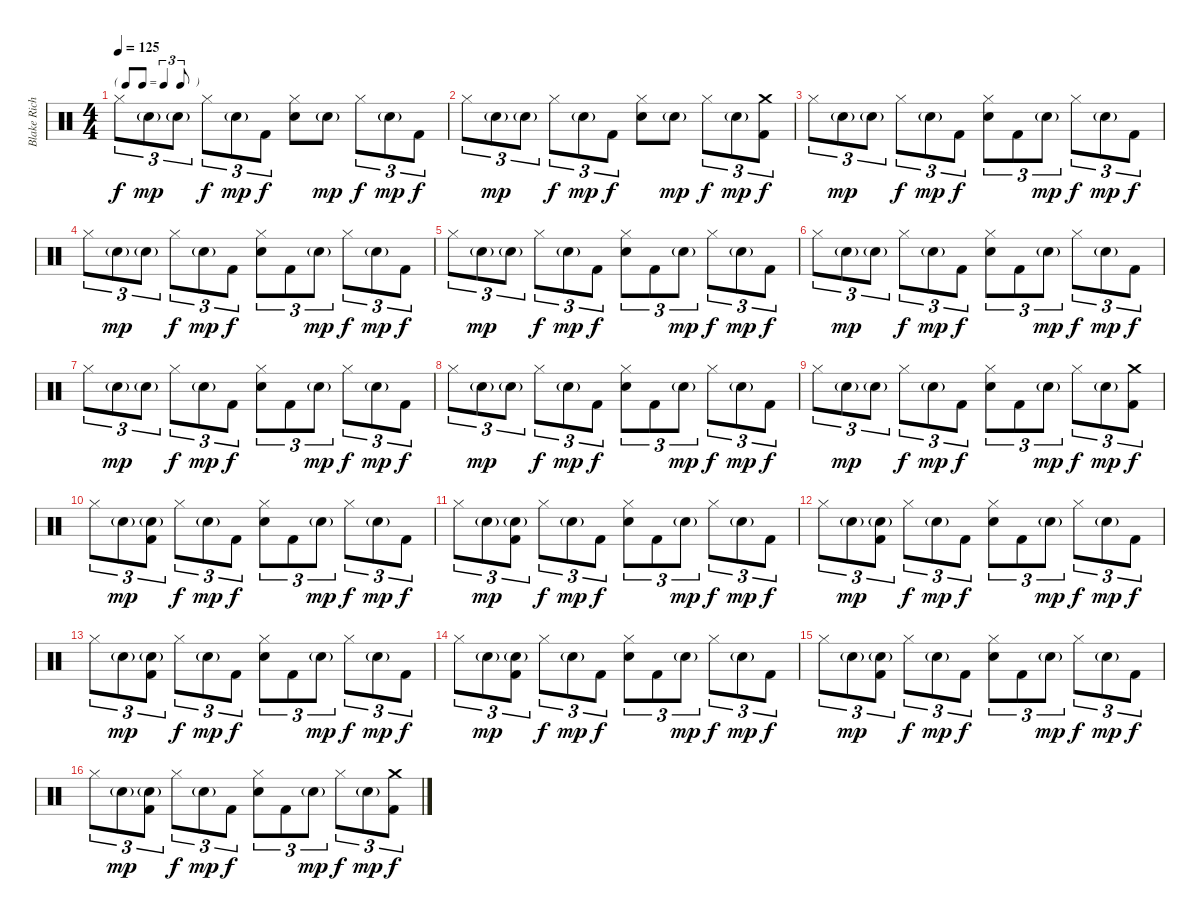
\track ("Blake Richardson - Drums" "Blake Rich") {instrument percussion}
\staff {score}
\articulation defaults
\ts (4 4)
\tf triplet8th
\tempo 125
\clef neutral
\ks c "Hi-Hat (closed)".8{tu (3 2) dy f} "Electric Snare (hit)"{g}.8{tu (3 2) dy mp} "Electric Snare (hit)"{g}.8{tu (3 2)} "Hi-Hat (closed)".8{tu (3 2) dy f} "Electric Snare (hit)"{g}.8{tu (3 2) dy mp} "Kick (hit) 2".8{tu (3 2) dy f}
("Hi-Hat (closed)" "Electric Snare (hit)").8 "Electric Snare (hit)"{g}.8{dy mp} "Hi-Hat (closed)".8{tu (3 2) dy f} "Electric Snare (hit)"{g}.8{tu (3 2) dy mp} "Kick (hit) 2".8{tu (3 2) dy f} |
"Hi-Hat (closed)".8{tu (3 2)} "Electric Snare (hit)"{g}.8{tu (3 2) dy mp} "Electric Snare (hit)"{g}.8{tu (3 2)} "Hi-Hat (closed)".8{tu (3 2) dy f} "Electric Snare (hit)"{g}.8{tu (3 2) dy mp} "Kick (hit) 2".8{tu (3 2) dy f} ("Hi-Hat (closed)" "Electric Snare (hit)").8 "Electric Snare (hit)"{g}.8{dy mp} "Hi-Hat (closed)".8{tu (3 2) dy f} "Electric Snare (hit)"{g}.8{tu (3 2) dy mp} ("Crash medium (hit)" "Kick (hit) 2").8{tu (3 2) dy f} |
"Hi-Hat (closed)".8{tu (3 2)} "Electric Snare (hit)"{g}.8{tu (3 2) dy mp} "Electric Snare (hit)"{g}.8{tu (3 2)} "Hi-Hat (closed)".8{tu (3 2) dy f} "Electric Snare (hit)"{g}.8{tu (3 2) dy mp} "Kick (hit) 2".8{tu (3 2) dy f} ("Hi-Hat (closed)" "Electric Snare (hit)").8{tu (3 2)} "Kick (hit) 2".8{tu (3 2)} "Electric Snare (hit)"{g}.8{tu (3 2) dy mp} "Hi-Hat (closed)".8{tu (3 2) dy f} "Electric Snare (hit)"{g}.8{tu (3 2) dy mp} "Kick (hit) 2".8{tu (3 2) dy f} |
"Hi-Hat (closed)".8{tu (3 2)} "Electric Snare (hit)"{g}.8{tu (3 2) dy mp} "Electric Snare (hit)"{g}.8{tu (3 2)} "Hi-Hat (closed)".8{tu (3 2) dy f} "Electric Snare (hit)"{g}.8{tu (3 2) dy mp} "Kick (hit) 2".8{tu (3 2) dy f} ("Hi-Hat (closed)" "Electric Snare (hit)").8{tu (3 2)} "Kick (hit) 2".8{tu (3 2)} "Electric Snare (hit)"{g}.8{tu (3 2) dy mp} "Hi-Hat (closed)".8{tu (3 2) dy f} "Electric Snare (hit)"{g}.8{tu (3 2) dy mp} "Kick (hit) 2".8{tu (3 2) dy f} |
"Hi-Hat (closed)".8{tu (3 2)} "Electric Snare (hit)"{g}.8{tu (3 2) dy mp} "Electric Snare (hit)"{g}.8{tu (3 2)} "Hi-Hat (closed)".8{tu (3 2) dy f} "Electric Snare (hit)"{g}.8{tu (3 2) dy mp} "Kick (hit) 2".8{tu (3 2) dy f} ("Hi-Hat (closed)" "Electric Snare (hit)").8{tu (3 2)} "Kick (hit) 2".8{tu (3 2)} "Electric Snare (hit)"{g}.8{tu (3 2) dy mp} "Hi-Hat (closed)".8{tu (3 2) dy f} "Electric Snare (hit)"{g}.8{tu (3 2) dy mp} "Kick (hit) 2".8{tu (3 2) dy f} |
"Hi-Hat (closed)".8{tu (3 2)} "Electric Snare (hit)"{g}.8{tu (3 2) dy mp} "Electric Snare (hit)"{g}.8{tu (3 2)} "Hi-Hat (closed)".8{tu (3 2) dy f} "Electric Snare (hit)"{g}.8{tu (3 2) dy mp} "Kick (hit) 2".8{tu (3 2) dy f} ("Hi-Hat (closed)" "Electric Snare (hit)").8{tu (3 2)} "Kick (hit) 2".8{tu (3 2)} "Electric Snare (hit)"{g}.8{tu (3 2) dy mp} "Hi-Hat (closed)".8{tu (3 2) dy f} "Electric Snare (hit)"{g}.8{tu (3 2) dy mp} "Kick (hit) 2".8{tu (3 2) dy f} |
"Hi-Hat (closed)".8{tu (3 2)} "Electric Snare (hit)"{g}.8{tu (3 2) dy mp} "Electric Snare (hit)"{g}.8{tu (3 2)} "Hi-Hat (closed)".8{tu (3 2) dy f} "Electric Snare (hit)"{g}.8{tu (3 2) dy mp} "Kick (hit) 2".8{tu (3 2) dy f} ("Hi-Hat (closed)" "Electric Snare (hit)").8{tu (3 2)} "Kick (hit) 2".8{tu (3 2)} "Electric Snare (hit)"{g}.8{tu (3 2) dy mp} "Hi-Hat (closed)".8{tu (3 2) dy f} "Electric Snare (hit)"{g}.8{tu (3 2) dy mp} "Kick (hit) 2".8{tu (3 2) dy f} |
"Hi-Hat (closed)".8{tu (3 2)} "Electric Snare (hit)"{g}.8{tu (3 2) dy mp} "Electric Snare (hit)"{g}.8{tu (3 2)} "Hi-Hat (closed)".8{tu (3 2) dy f} "Electric Snare (hit)"{g}.8{tu (3 2) dy mp} "Kick (hit) 2".8{tu (3 2) dy f} ("Hi-Hat (closed)" "Electric Snare (hit)").8{tu (3 2)} "Kick (hit) 2".8{tu (3 2)} "Electric Snare (hit)"{g}.8{tu (3 2) dy mp} "Hi-Hat (closed)".8{tu (3 2) dy f} "Electric Snare (hit)"{g}.8{tu (3 2) dy mp} "Kick (hit) 2".8{tu (3 2) dy f} |
"Hi-Hat (closed)".8{tu (3 2)} "Electric Snare (hit)"{g}.8{tu (3 2) dy mp} "Electric Snare (hit)"{g}.8{tu (3 2)} "Hi-Hat (closed)".8{tu (3 2) dy f} "Electric Snare (hit)"{g}.8{tu (3 2) dy mp} "Kick (hit) 2".8{tu (3 2) dy f} ("Hi-Hat (closed)" "Electric Snare (hit)").8{tu (3 2)} "Kick (hit) 2".8{tu (3 2)} "Electric Snare (hit)"{g}.8{tu (3 2) dy mp} "Hi-Hat (closed)".8{tu (3 2) dy f} "Electric Snare (hit)"{g}.8{tu (3 2) dy mp} ("Crash medium (hit)" "Kick (hit) 2").8{tu (3 2) dy f} |
"Hi-Hat (closed)".8{tu (3 2)} "Electric Snare (hit)"{g}.8{tu (3 2) dy mp} ("Electric Snare (hit)"{g} "Kick (hit) 2").8{tu (3 2)} "Hi-Hat (closed)".8{tu (3 2) dy f} "Electric Snare (hit)"{g}.8{tu (3 2) dy mp} "Kick (hit) 2".8{tu (3 2) dy f} ("Hi-Hat (closed)" "Electric Snare (hit)").8{tu (3 2)} "Kick (hit) 2".8{tu (3 2)} "Electric Snare (hit)"{g}.8{tu (3 2) dy mp} "Hi-Hat (closed)".8{tu (3 2) dy f} "Electric Snare (hit)"{g}.8{tu (3 2) dy mp} "Kick (hit) 2".8{tu (3 2) dy f} |
"Hi-Hat (closed)".8{tu (3 2)} "Electric Snare (hit)"{g}.8{tu (3 2) dy mp} ("Electric Snare (hit)"{g} "Kick (hit) 2").8{tu (3 2)} "Hi-Hat (closed)".8{tu (3 2) dy f} "Electric Snare (hit)"{g}.8{tu (3 2) dy mp} "Kick (hit) 2".8{tu (3 2) dy f} ("Hi-Hat (closed)" "Electric Snare (hit)").8{tu (3 2)} "Kick (hit) 2".8{tu (3 2)} "Electric Snare (hit)"{g}.8{tu (3 2) dy mp} "Hi-Hat (closed)".8{tu (3 2) dy f} "Electric Snare (hit)"{g}.8{tu (3 2) dy mp} "Kick (hit) 2".8{tu (3 2) dy f} |
"Hi-Hat (closed)".8{tu (3 2)} "Electric Snare (hit)"{g}.8{tu (3 2) dy mp} ("Electric Snare (hit)"{g} "Kick (hit) 2").8{tu (3 2)} "Hi-Hat (closed)".8{tu (3 2) dy f} "Electric Snare (hit)"{g}.8{tu (3 2) dy mp} "Kick (hit) 2".8{tu (3 2) dy f} ("Hi-Hat (closed)" "Electric Snare (hit)").8{tu (3 2)} "Kick (hit) 2".8{tu (3 2)} "Electric Snare (hit)"{g}.8{tu (3 2) dy mp} "Hi-Hat (closed)".8{tu (3 2) dy f} "Electric Snare (hit)"{g}.8{tu (3 2) dy mp} "Kick (hit) 2".8{tu (3 2) dy f} |
"Hi-Hat (closed)".8{tu (3 2)} "Electric Snare (hit)"{g}.8{tu (3 2) dy mp} ("Electric Snare (hit)"{g} "Kick (hit) 2").8{tu (3 2)} "Hi-Hat (closed)".8{tu (3 2) dy f} "Electric Snare (hit)"{g}.8{tu (3 2) dy mp} "Kick (hit) 2".8{tu (3 2) dy f} ("Hi-Hat (closed)" "Electric Snare (hit)").8{tu (3 2)} "Kick (hit) 2".8{tu (3 2)} "Electric Snare (hit)"{g}.8{tu (3 2) dy mp} "Hi-Hat (closed)".8{tu (3 2) dy f} "Electric Snare (hit)"{g}.8{tu (3 2) dy mp} "Kick (hit) 2".8{tu (3 2) dy f} |
"Hi-Hat (closed)".8{tu (3 2)} "Electric Snare (hit)"{g}.8{tu (3 2) dy mp} ("Electric Snare (hit)"{g} "Kick (hit) 2").8{tu (3 2)} "Hi-Hat (closed)".8{tu (3 2) dy f} "Electric Snare (hit)"{g}.8{tu (3 2) dy mp} "Kick (hit) 2".8{tu (3 2) dy f} ("Hi-Hat (closed)" "Electric Snare (hit)").8{tu (3 2)} "Kick (hit) 2".8{tu (3 2)} "Electric Snare (hit)"{g}.8{tu (3 2) dy mp} "Hi-Hat (closed)".8{tu (3 2) dy f} "Electric Snare (hit)"{g}.8{tu (3 2) dy mp} "Kick (hit) 2".8{tu (3 2) dy f} |
"Hi-Hat (closed)".8{tu (3 2)} "Electric Snare (hit)"{g}.8{tu (3 2) dy mp} ("Electric Snare (hit)"{g} "Kick (hit) 2").8{tu (3 2)} "Hi-Hat (closed)".8{tu (3 2) dy f} "Electric Snare (hit)"{g}.8{tu (3 2) dy mp} "Kick (hit) 2".8{tu (3 2) dy f} ("Hi-Hat (closed)" "Electric Snare (hit)").8{tu (3 2)} "Kick (hit) 2".8{tu (3 2)} "Electric Snare (hit)"{g}.8{tu (3 2) dy mp} "Hi-Hat (closed)".8{tu (3 2) dy f} "Electric Snare (hit)"{g}.8{tu (3 2) dy mp} "Kick (hit) 2".8{tu (3 2) dy f} |
"Hi-Hat (closed)".8{tu (3 2)} "Electric Snare (hit)"{g}.8{tu (3 2) dy mp} ("Electric Snare (hit)"{g} "Kick (hit) 2").8{tu (3 2)} "Hi-Hat (closed)".8{tu (3 2) dy f} "Electric Snare (hit)"{g}.8{tu (3 2) dy mp} "Kick (hit) 2".8{tu (3 2) dy f} ("Hi-Hat (closed)" "Electric Snare (hit)").8{tu (3 2)} "Kick (hit) 2".8{tu (3 2)} "Electric Snare (hit)"{g}.8{tu (3 2) dy mp} "Hi-Hat (closed)".8{tu (3 2) dy f} "Electric Snare (hit)"{g}.8{tu (3 2) dy mp} ("Crash medium (hit)" "Kick (hit) 2").8{tu (3 2) dy f}
